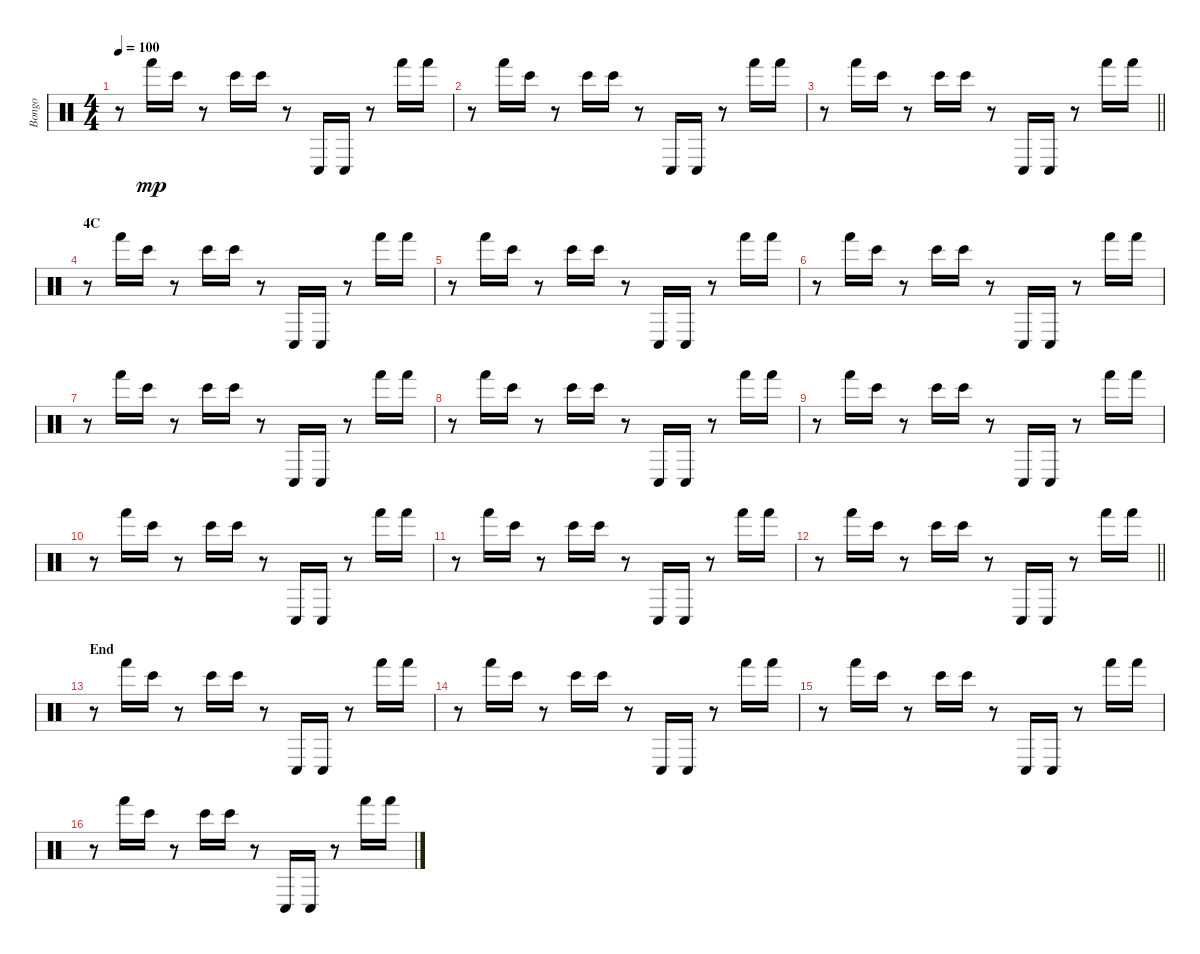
\track ("Bongo" "Bongo") {instrument percussion}
\staff {score}
\articulation defaults
\ts (4 4)
\tempo 100
\clef neutral
\ks c
r.8{dy mp} "Hand (hit)".16 "Bongo High (hit)".16 r.8 "Bongo High (hit)".16 "Bongo High (hit)".16 r.8 "Conga low (hit)".16 "Conga low (hit)".16 r.8 "Hand (hit)".16 "Hand (hit)".16 |
r.8 "Hand (hit)".16 "Bongo High (hit)".16 r.8 "Bongo High (hit)".16 "Bongo High (hit)".16 r.8 "Conga low (hit)".16 "Conga low (hit)".16 r.8 "Hand (hit)".16 "Hand (hit)".16 |
\barLineRight lightlight
r.8 "Hand (hit)".16 "Bongo High (hit)".16 r.8 "Bongo High (hit)".16 "Bongo High (hit)".16 r.8 "Conga low (hit)".16 "Conga low (hit)".16 r.8 "Hand (hit)".16 "Hand (hit)".16 |
\section ("" "4C")
r.8 "Hand (hit)".16 "Bongo High (hit)".16 r.8 "Bongo High (hit)".16 "Bongo High (hit)".16 r.8 "Conga low (hit)".16 "Conga low (hit)".16 r.8 "Hand (hit)".16 "Hand (hit)".16 |
r.8 "Hand (hit)".16 "Bongo High (hit)".16 r.8 "Bongo High (hit)".16 "Bongo High (hit)".16 r.8 "Conga low (hit)".16 "Conga low (hit)".16 r.8 "Hand (hit)".16 "Hand (hit)".16 |
r.8 "Hand (hit)".16 "Bongo High (hit)".16 r.8 "Bongo High (hit)".16 "Bongo High (hit)".16 r.8 "Conga low (hit)".16 "Conga low (hit)".16 r.8 "Hand (hit)".16 "Hand (hit)".16 |
r.8 "Hand (hit)".16 "Bongo High (hit)".16 r.8 "Bongo High (hit)".16 "Bongo High (hit)".16 r.8 "Conga low (hit)".16 "Conga low (hit)".16 r.8 "Hand (hit)".16 "Hand (hit)".16 |
r.8 "Hand (hit)".16 "Bongo High (hit)".16 r.8 "Bongo High (hit)".16 "Bongo High (hit)".16 r.8 "Conga low (hit)".16 "Conga low (hit)".16 r.8 "Hand (hit)".16 "Hand (hit)".16 |
r.8 "Hand (hit)".16 "Bongo High (hit)".16 r.8 "Bongo High (hit)".16 "Bongo High (hit)".16 r.8 "Conga low (hit)".16 "Conga low (hit)".16 r.8 "Hand (hit)".16 "Hand (hit)".16 |
r.8 "Hand (hit)".16 "Bongo High (hit)".16 r.8 "Bongo High (hit)".16 "Bongo High (hit)".16 r.8 "Conga low (hit)".16 "Conga low (hit)".16 r.8 "Hand (hit)".16 "Hand (hit)".16 |
r.8 "Hand (hit)".16 "Bongo High (hit)".16 r.8 "Bongo High (hit)".16 "Bongo High (hit)".16 r.8 "Conga low (hit)".16 "Conga low (hit)".16 r.8 "Hand (hit)".16 "Hand (hit)".16 |
\barLineRight lightlight
r.8 "Hand (hit)".16 "Bongo High (hit)".16 r.8 "Bongo High (hit)".16 "Bongo High (hit)".16 r.8 "Conga low (hit)".16 "Conga low (hit)".16 r.8 "Hand (hit)".16 "Hand (hit)".16 |
\section ("" "End")
r.8 "Hand (hit)".16 "Bongo High (hit)".16 r.8 "Bongo High (hit)".16 "Bongo High (hit)".16 r.8 "Conga low (hit)".16 "Conga low (hit)".16 r.8 "Hand (hit)".16 "Hand (hit)".16 |
r.8 "Hand (hit)".16 "Bongo High (hit)".16 r.8 "Bongo High (hit)".16 "Bongo High (hit)".16 r.8 "Conga low (hit)".16 "Conga low (hit)".16 r.8 "Hand (hit)".16 "Hand (hit)".16 |
r.8 "Hand (hit)".16 "Bongo High (hit)".16 r.8 "Bongo High (hit)".16 "Bongo High (hit)".16 r.8 "Conga low (hit)".16 "Conga low (hit)".16 r.8 "Hand (hit)".16 "Hand (hit)".16 |
r.8 "Hand (hit)".16 "Bongo High (hit)".16 r.8 "Bongo High (hit)".16 "Bongo High (hit)".16 r.8 "Conga low (hit)".16 "Conga low (hit)".16 r.8 "Hand (hit)".16 "Hand (hit)".16
